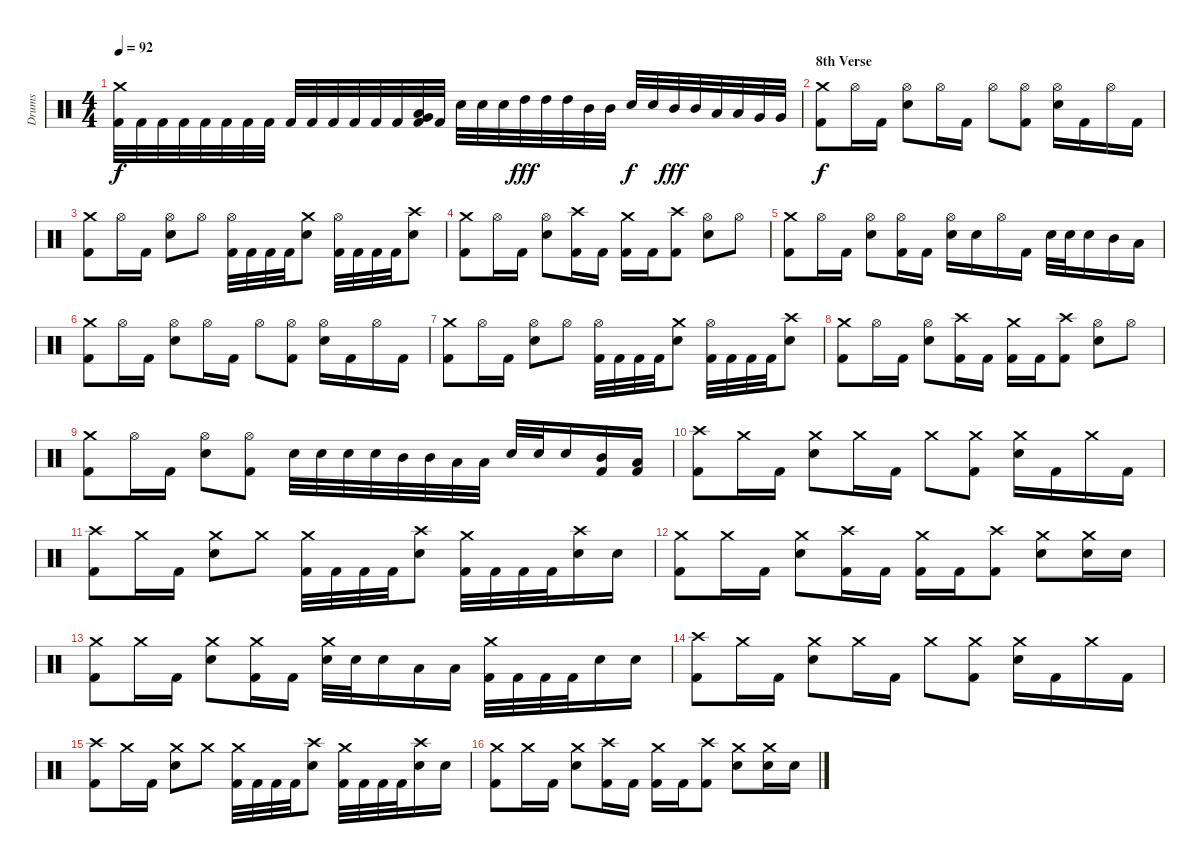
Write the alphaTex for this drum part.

\track ("Drums" "Drums") {instrument percussion}
\staff {score}
\articulation defaults
\ts (4 4)
\tempo 92
\clef neutral
\ks c
("Kick (hit) 2" "Crash medium (hit)").32{dy f} "Kick (hit) 2".32 "Kick (hit) 2".32 "Kick (hit) 2".32 "Kick (hit) 2".32 "Kick (hit) 2".32 "Kick (hit) 2".32 "Kick (hit) 2".32 "Kick (hit) 2".32 "Kick (hit) 2".32 "Kick (hit) 2".32 "Kick (hit) 2".32 "Kick (hit) 2".32 "Kick (hit) 2".32 ("Kick (hit) 2" "Low Tom (hit)" "Very Low Tom (hit)").32 "Kick (hit) 2".32 "Electric Snare (hit)".32 "Electric Snare (hit)".32 "Electric Snare (hit)".32 "High Tom (hit)".32{dy fff} "High Tom (hit)".32 "High Tom (hit)".32 "Mid Tom (hit)".32 "Mid Tom (hit)".32 "Electric Snare (hit)".32{dy f} "Electric Snare (hit)".32 "Mid Tom (hit)".32{dy fff} "Mid Tom (hit)".32 "Low Tom (hit)".32 "Low Tom (hit)".32 "Very Low Tom (hit)".32 "Very Low Tom (hit)".32 |
\section ("" "8th Verse")
("Kick (hit) 2" "Crash medium (hit)").8{dy f} "Hi-Hat (open)".16 "Kick (hit) 2".16 ("Electric Snare (hit)" "Hi-Hat (open)").8 "Hi-Hat (open)".16 "Kick (hit) 2".16 "Hi-Hat (open)".8 ("Kick (hit) 2" "Hi-Hat (open)").8 ("Electric Snare (hit)" "Hi-Hat (open)").16 "Kick (hit) 2".16 "Hi-Hat (open)".16 "Kick (hit) 2".16 |
("Kick (hit) 2" "Crash medium (hit)").8 "Hi-Hat (open)".16 "Kick (hit) 2".16 ("Electric Snare (hit)" "Hi-Hat (open)").8 "Hi-Hat (open)".8 ("Kick (hit) 2" "Hi-Hat (open)").32 "Kick (hit) 2".32 "Kick (hit) 2".32 "Kick (hit) 2".32 ("Electric Snare (hit)" "Crash medium (hit)").8 ("Kick (hit) 2" "Hi-Hat (open)").32 "Kick (hit) 2".32 "Kick (hit) 2".32 "Kick (hit) 2".32 ("Electric Snare (hit)" "Crash high (hit)").8 |
("Kick (hit) 2" "Crash medium (hit)").8 "Hi-Hat (open)".16 "Kick (hit) 2".16 ("Electric Snare (hit)" "Hi-Hat (open)").8 ("Kick (hit) 2" "Crash high (hit)").16 "Kick (hit) 2".16 ("Kick (hit) 2" "Crash medium (hit)").16 "Kick (hit) 2".16 ("Kick (hit) 2" "Crash high (hit)").8 ("Electric Snare (hit)" "Hi-Hat (open)").8 "Hi-Hat (open)".8 |
("Kick (hit) 2" "Crash medium (hit)").8 "Hi-Hat (open)".16 "Kick (hit) 2".16 ("Electric Snare (hit)" "Hi-Hat (open)").8 ("Kick (hit) 2" "Hi-Hat (open)").16 "Kick (hit) 2".16 ("Electric Snare (hit)" "Hi-Hat (open)").16 "Electric Snare (hit)".16 "Hi-Hat (open)".16 "Kick (hit) 2".16 "Electric Snare (hit)".32 "Electric Snare (hit)".32 "Electric Snare (hit)".16 "Mid Tom (hit)".16 "Low Tom (hit)".16 |
("Kick (hit) 2" "Crash medium (hit)").8 "Hi-Hat (open)".16 "Kick (hit) 2".16 ("Electric Snare (hit)" "Hi-Hat (open)").8 "Hi-Hat (open)".16 "Kick (hit) 2".16 "Hi-Hat (open)".8 ("Kick (hit) 2" "Hi-Hat (open)").8 ("Electric Snare (hit)" "Hi-Hat (open)").16 "Kick (hit) 2".16 "Hi-Hat (open)".16 "Kick (hit) 2".16 |
("Kick (hit) 2" "Crash medium (hit)").8 "Hi-Hat (open)".16 "Kick (hit) 2".16 ("Electric Snare (hit)" "Hi-Hat (open)").8 "Hi-Hat (open)".8 ("Kick (hit) 2" "Hi-Hat (open)").32 "Kick (hit) 2".32 "Kick (hit) 2".32 "Kick (hit) 2".32 ("Electric Snare (hit)" "Crash medium (hit)").8 ("Kick (hit) 2" "Hi-Hat (open)").32 "Kick (hit) 2".32 "Kick (hit) 2".32 "Kick (hit) 2".32 ("Electric Snare (hit)" "Crash high (hit)").8 |
("Kick (hit) 2" "Crash medium (hit)").8 "Hi-Hat (open)".16 "Kick (hit) 2".16 ("Electric Snare (hit)" "Hi-Hat (open)").8 ("Kick (hit) 2" "Crash high (hit)").16 "Kick (hit) 2".16 ("Kick (hit) 2" "Crash medium (hit)").16 "Kick (hit) 2".16 ("Kick (hit) 2" "Crash high (hit)").8 ("Electric Snare (hit)" "Hi-Hat (open)").8 "Hi-Hat (open)".8 |
("Kick (hit) 2" "Crash medium (hit)").8 "Hi-Hat (open)".16 "Kick (hit) 2".16 ("Electric Snare (hit)" "Hi-Hat (open)").8 ("Kick (hit) 2" "Hi-Hat (open)").8 "Electric Snare (hit)".32 "Electric Snare (hit)".32 "Electric Snare (hit)".32 "Electric Snare (hit)".32 "Mid Tom (hit)".32 "Mid Tom (hit)".32 "Low Tom (hit)".32 "Low Tom (hit)".32 "Electric Snare (hit)".32 "Electric Snare (hit)".32 "Electric Snare (hit)".16 ("Kick (hit) 2" "Mid Tom (hit)").16 ("Kick (hit) 2" "Low Tom (hit)").16 |
("Kick (hit) 2" "Crash high (hit)").8 "Crash medium (hit)".16 "Kick (hit) 2".16 ("Electric Snare (hit)" "Crash medium (hit)").8 "Crash medium (hit)".16 "Kick (hit) 2".16 "Crash medium (hit)".8 ("Kick (hit) 2" "Crash medium (hit)").8 ("Electric Snare (hit)" "Crash medium (hit)").16 "Kick (hit) 2".16 "Crash medium (hit)".16 "Kick (hit) 2".16 |
("Kick (hit) 2" "Crash high (hit)").8 "Crash medium (hit)".16 "Kick (hit) 2".16 ("Electric Snare (hit)" "Crash medium (hit)").8 "Crash medium (hit)".8 ("Kick (hit) 2" "Crash medium (hit)").32 "Kick (hit) 2".32 "Kick (hit) 2".32 "Kick (hit) 2".32 ("Electric Snare (hit)" "Crash high (hit)").8 ("Kick (hit) 2" "Crash medium (hit)").32 "Kick (hit) 2".32 "Kick (hit) 2".32 "Kick (hit) 2".32 ("Electric Snare (hit)" "Crash high (hit)").16 "Electric Snare (hit)".16 |
("Kick (hit) 2" "Crash medium (hit)").8 "Crash medium (hit)".16 "Kick (hit) 2".16 ("Electric Snare (hit)" "Crash medium (hit)").8 ("Kick (hit) 2" "Crash high (hit)").16 "Kick (hit) 2".16 ("Kick (hit) 2" "Crash medium (hit)").16 "Kick (hit) 2".16 ("Kick (hit) 2" "Crash high (hit)").8 ("Electric Snare (hit)" "Crash medium (hit)").8 ("Electric Snare (hit)" "Crash medium (hit)").16 "Electric Snare (hit)".16 |
("Kick (hit) 2" "Crash medium (hit)").8 "Crash medium (hit)".16 "Kick (hit) 2".16 ("Electric Snare (hit)" "Crash medium (hit)").8 ("Kick (hit) 2" "Crash medium (hit)").16 "Kick (hit) 2".16 ("Electric Snare (hit)" "Crash medium (hit)").32 "Electric Snare (hit)".32 "Electric Snare (hit)".16 "Low Tom (hit)".16 "Low Tom (hit)".16 ("Kick (hit) 2" "Crash medium (hit)").32 "Kick (hit) 2".32 "Kick (hit) 2".32 "Kick (hit) 2".32 "Electric Snare (hit)".16 "Electric Snare (hit)".16 |
("Kick (hit) 2" "Crash high (hit)").8 "Crash medium (hit)".16 "Kick (hit) 2".16 ("Electric Snare (hit)" "Crash medium (hit)").8 "Crash medium (hit)".16 "Kick (hit) 2".16 "Crash medium (hit)".8 ("Kick (hit) 2" "Crash medium (hit)").8 ("Electric Snare (hit)" "Crash medium (hit)").16 "Kick (hit) 2".16 "Crash medium (hit)".16 "Kick (hit) 2".16 |
("Kick (hit) 2" "Crash high (hit)").8 "Crash medium (hit)".16 "Kick (hit) 2".16 ("Electric Snare (hit)" "Crash medium (hit)").8 "Crash medium (hit)".8 ("Kick (hit) 2" "Crash medium (hit)").32 "Kick (hit) 2".32 "Kick (hit) 2".32 "Kick (hit) 2".32 ("Electric Snare (hit)" "Crash high (hit)").8 ("Kick (hit) 2" "Crash medium (hit)").32 "Kick (hit) 2".32 "Kick (hit) 2".32 "Kick (hit) 2".32 ("Electric Snare (hit)" "Crash high (hit)").16 "Electric Snare (hit)".16 |
("Kick (hit) 2" "Crash medium (hit)").8 "Crash medium (hit)".16 "Kick (hit) 2".16 ("Electric Snare (hit)" "Crash medium (hit)").8 ("Kick (hit) 2" "Crash high (hit)").16 "Kick (hit) 2".16 ("Kick (hit) 2" "Crash medium (hit)").16 "Kick (hit) 2".16 ("Kick (hit) 2" "Crash high (hit)").8 ("Electric Snare (hit)" "Crash medium (hit)").8 ("Electric Snare (hit)" "Crash medium (hit)").16 "Electric Snare (hit)".16
